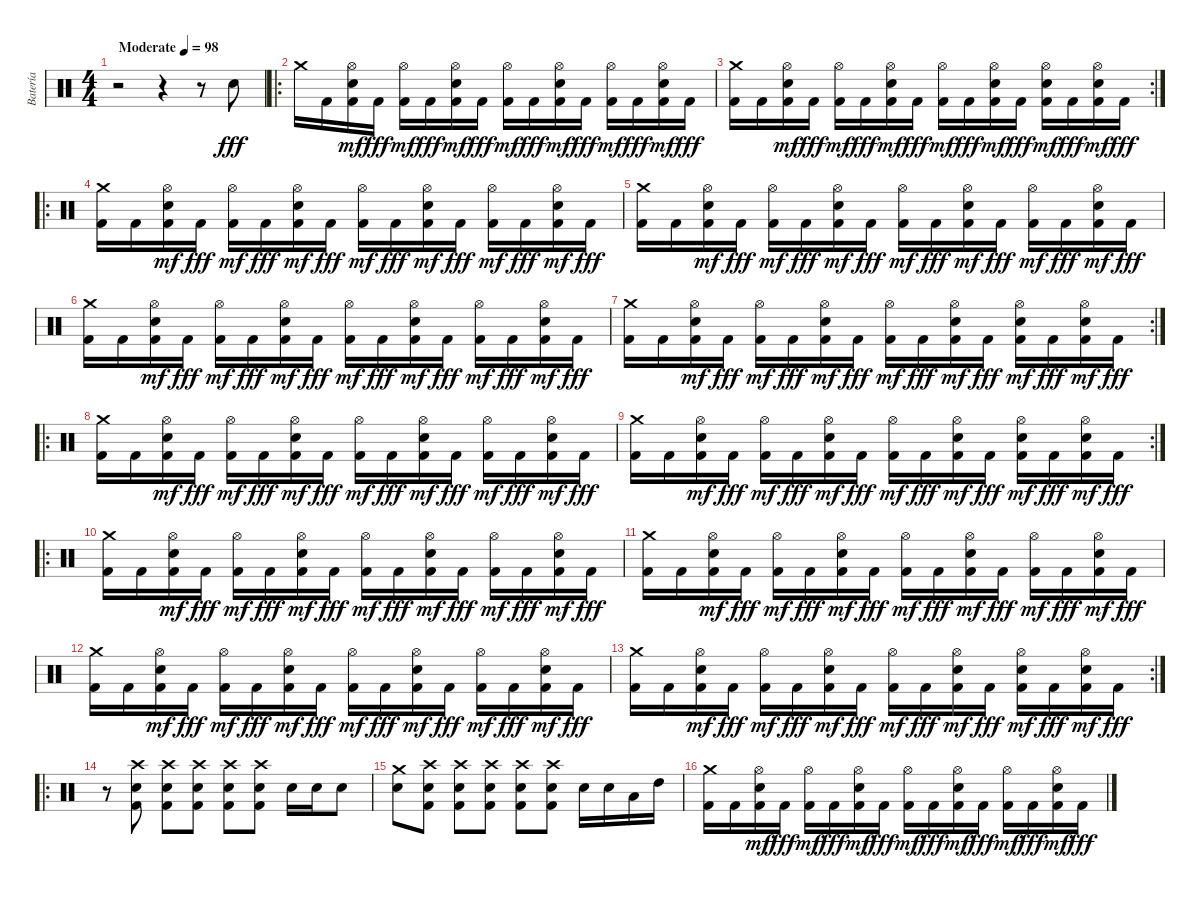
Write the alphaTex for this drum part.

\track ("Batería" "Batería") {instrument percussion}
\staff {score}
\articulation defaults
\ts (4 4)
\tempo (98 "Moderate")
\clef neutral
\ks c
r.2{dy fff} r.4 r.8 "Electric Snare (hit)".8 |
\ro "Crash medium (hit)".16 "Kick (hit) 2".16
("Kick (hit) 2" "Electric Snare (hit)" "Hi-Hat (open)").16{dy mf} "Kick (hit) 2".16{dy fff} ("Kick (hit) 2" "Hi-Hat (open)").16{dy mf} "Kick (hit) 2".16{dy fff} ("Kick (hit) 2" "Electric Snare (hit)" "Hi-Hat (open)").16{dy mf} "Kick (hit) 2".16{dy fff} ("Kick (hit) 2" "Hi-Hat (open)").16{dy mf} "Kick (hit) 2".16{dy fff} ("Kick (hit) 2" "Electric Snare (hit)" "Hi-Hat (open)").16{dy mf} "Kick (hit) 2".16{dy fff} ("Kick (hit) 2" "Hi-Hat (open)").16{dy mf} "Kick (hit) 2".16{dy fff} ("Kick (hit) 2" "Electric Snare (hit)" "Hi-Hat (open)").16{dy mf} "Kick (hit) 2".16{dy fff} |
\rc 2
("Kick (hit) 2" "Crash medium (hit)").16 "Kick (hit) 2".16 ("Kick (hit) 2" "Electric Snare (hit)" "Hi-Hat (open)").16{dy mf} "Kick (hit) 2".16{dy fff} ("Kick (hit) 2" "Hi-Hat (open)").16{dy mf} "Kick (hit) 2".16{dy fff} ("Kick (hit) 2" "Electric Snare (hit)" "Hi-Hat (open)").16{dy mf} "Kick (hit) 2".16{dy fff} ("Kick (hit) 2" "Hi-Hat (open)").16{dy mf} "Kick (hit) 2".16{dy fff} ("Kick (hit) 2" "Electric Snare (hit)" "Hi-Hat (open)").16{dy mf} "Kick (hit) 2".16{dy fff} ("Kick (hit) 2" "Electric Snare (hit)" "Hi-Hat (open)").16{dy mf} "Kick (hit) 2".16{dy fff} ("Kick (hit) 2" "Electric Snare (hit)" "Hi-Hat (open)").16{dy mf} "Kick (hit) 2".16{dy fff} |
\ro
("Kick (hit) 2" "Crash medium (hit)").16 "Kick (hit) 2".16 ("Kick (hit) 2" "Electric Snare (hit)" "Hi-Hat (open)").16{dy mf} "Kick (hit) 2".16{dy fff} ("Kick (hit) 2" "Hi-Hat (open)").16{dy mf} "Kick (hit) 2".16{dy fff} ("Kick (hit) 2" "Electric Snare (hit)" "Hi-Hat (open)").16{dy mf} "Kick (hit) 2".16{dy fff} ("Kick (hit) 2" "Hi-Hat (open)").16{dy mf} "Kick (hit) 2".16{dy fff} ("Kick (hit) 2" "Electric Snare (hit)" "Hi-Hat (open)").16{dy mf} "Kick (hit) 2".16{dy fff} ("Kick (hit) 2" "Hi-Hat (open)").16{dy mf} "Kick (hit) 2".16{dy fff} ("Kick (hit) 2" "Electric Snare (hit)" "Hi-Hat (open)").16{dy mf} "Kick (hit) 2".16{dy fff} |
("Kick (hit) 2" "Crash medium (hit)").16 "Kick (hit) 2".16 ("Kick (hit) 2" "Electric Snare (hit)" "Hi-Hat (open)").16{dy mf} "Kick (hit) 2".16{dy fff} ("Kick (hit) 2" "Hi-Hat (open)").16{dy mf} "Kick (hit) 2".16{dy fff} ("Kick (hit) 2" "Electric Snare (hit)" "Hi-Hat (open)").16{dy mf} "Kick (hit) 2".16{dy fff} ("Kick (hit) 2" "Hi-Hat (open)").16{dy mf} "Kick (hit) 2".16{dy fff} ("Kick (hit) 2" "Electric Snare (hit)" "Hi-Hat (open)").16{dy mf} "Kick (hit) 2".16{dy fff} ("Kick (hit) 2" "Hi-Hat (open)").16{dy mf} "Kick (hit) 2".16{dy fff} ("Kick (hit) 2" "Electric Snare (hit)" "Hi-Hat (open)").16{dy mf} "Kick (hit) 2".16{dy fff} |
("Kick (hit) 2" "Crash medium (hit)").16 "Kick (hit) 2".16 ("Kick (hit) 2" "Electric Snare (hit)" "Hi-Hat (open)").16{dy mf} "Kick (hit) 2".16{dy fff} ("Kick (hit) 2" "Hi-Hat (open)").16{dy mf} "Kick (hit) 2".16{dy fff} ("Kick (hit) 2" "Electric Snare (hit)" "Hi-Hat (open)").16{dy mf} "Kick (hit) 2".16{dy fff} ("Kick (hit) 2" "Hi-Hat (open)").16{dy mf} "Kick (hit) 2".16{dy fff} ("Kick (hit) 2" "Electric Snare (hit)" "Hi-Hat (open)").16{dy mf} "Kick (hit) 2".16{dy fff} ("Kick (hit) 2" "Hi-Hat (open)").16{dy mf} "Kick (hit) 2".16{dy fff} ("Kick (hit) 2" "Electric Snare (hit)" "Hi-Hat (open)").16{dy mf} "Kick (hit) 2".16{dy fff} |
\rc 2
("Kick (hit) 2" "Crash medium (hit)").16 "Kick (hit) 2".16 ("Kick (hit) 2" "Electric Snare (hit)" "Hi-Hat (open)").16{dy mf} "Kick (hit) 2".16{dy fff} ("Kick (hit) 2" "Hi-Hat (open)").16{dy mf} "Kick (hit) 2".16{dy fff} ("Kick (hit) 2" "Electric Snare (hit)" "Hi-Hat (open)").16{dy mf} "Kick (hit) 2".16{dy fff} ("Kick (hit) 2" "Hi-Hat (open)").16{dy mf} "Kick (hit) 2".16{dy fff} ("Kick (hit) 2" "Electric Snare (hit)" "Hi-Hat (open)").16{dy mf} "Kick (hit) 2".16{dy fff} ("Kick (hit) 2" "Electric Snare (hit)" "Hi-Hat (open)").16{dy mf} "Kick (hit) 2".16{dy fff} ("Kick (hit) 2" "Electric Snare (hit)" "Hi-Hat (open)").16{dy mf} "Kick (hit) 2".16{dy fff} |
\ro
("Kick (hit) 2" "Crash medium (hit)").16 "Kick (hit) 2".16 ("Kick (hit) 2" "Electric Snare (hit)" "Hi-Hat (open)").16{dy mf} "Kick (hit) 2".16{dy fff} ("Kick (hit) 2" "Hi-Hat (open)").16{dy mf} "Kick (hit) 2".16{dy fff} ("Kick (hit) 2" "Electric Snare (hit)" "Hi-Hat (open)").16{dy mf} "Kick (hit) 2".16{dy fff} ("Kick (hit) 2" "Hi-Hat (open)").16{dy mf} "Kick (hit) 2".16{dy fff} ("Kick (hit) 2" "Electric Snare (hit)" "Hi-Hat (open)").16{dy mf} "Kick (hit) 2".16{dy fff} ("Kick (hit) 2" "Hi-Hat (open)").16{dy mf} "Kick (hit) 2".16{dy fff} ("Kick (hit) 2" "Electric Snare (hit)" "Hi-Hat (open)").16{dy mf} "Kick (hit) 2".16{dy fff} |
\rc 2
("Kick (hit) 2" "Crash medium (hit)").16 "Kick (hit) 2".16 ("Kick (hit) 2" "Electric Snare (hit)" "Hi-Hat (open)").16{dy mf} "Kick (hit) 2".16{dy fff} ("Kick (hit) 2" "Hi-Hat (open)").16{dy mf} "Kick (hit) 2".16{dy fff} ("Kick (hit) 2" "Electric Snare (hit)" "Hi-Hat (open)").16{dy mf} "Kick (hit) 2".16{dy fff} ("Kick (hit) 2" "Hi-Hat (open)").16{dy mf} "Kick (hit) 2".16{dy fff} ("Kick (hit) 2" "Electric Snare (hit)" "Hi-Hat (open)").16{dy mf} "Kick (hit) 2".16{dy fff} ("Kick (hit) 2" "Electric Snare (hit)" "Hi-Hat (open)").16{dy mf} "Kick (hit) 2".16{dy fff} ("Kick (hit) 2" "Electric Snare (hit)" "Hi-Hat (open)").16{dy mf} "Kick (hit) 2".16{dy fff} |
\ro
("Kick (hit) 2" "Crash medium (hit)").16 "Kick (hit) 2".16 ("Kick (hit) 2" "Electric Snare (hit)" "Hi-Hat (open)").16{dy mf} "Kick (hit) 2".16{dy fff} ("Kick (hit) 2" "Hi-Hat (open)").16{dy mf} "Kick (hit) 2".16{dy fff} ("Kick (hit) 2" "Electric Snare (hit)" "Hi-Hat (open)").16{dy mf} "Kick (hit) 2".16{dy fff} ("Kick (hit) 2" "Hi-Hat (open)").16{dy mf} "Kick (hit) 2".16{dy fff} ("Kick (hit) 2" "Electric Snare (hit)" "Hi-Hat (open)").16{dy mf} "Kick (hit) 2".16{dy fff} ("Kick (hit) 2" "Hi-Hat (open)").16{dy mf} "Kick (hit) 2".16{dy fff} ("Kick (hit) 2" "Electric Snare (hit)" "Hi-Hat (open)").16{dy mf} "Kick (hit) 2".16{dy fff} |
("Kick (hit) 2" "Crash medium (hit)").16 "Kick (hit) 2".16 ("Kick (hit) 2" "Electric Snare (hit)" "Hi-Hat (open)").16{dy mf} "Kick (hit) 2".16{dy fff} ("Kick (hit) 2" "Hi-Hat (open)").16{dy mf} "Kick (hit) 2".16{dy fff} ("Kick (hit) 2" "Electric Snare (hit)" "Hi-Hat (open)").16{dy mf} "Kick (hit) 2".16{dy fff} ("Kick (hit) 2" "Hi-Hat (open)").16{dy mf} "Kick (hit) 2".16{dy fff} ("Kick (hit) 2" "Electric Snare (hit)" "Hi-Hat (open)").16{dy mf} "Kick (hit) 2".16{dy fff} ("Kick (hit) 2" "Hi-Hat (open)").16{dy mf} "Kick (hit) 2".16{dy fff} ("Kick (hit) 2" "Electric Snare (hit)" "Hi-Hat (open)").16{dy mf} "Kick (hit) 2".16{dy fff} |
("Kick (hit) 2" "Crash medium (hit)").16 "Kick (hit) 2".16 ("Kick (hit) 2" "Electric Snare (hit)" "Hi-Hat (open)").16{dy mf} "Kick (hit) 2".16{dy fff} ("Kick (hit) 2" "Hi-Hat (open)").16{dy mf} "Kick (hit) 2".16{dy fff} ("Kick (hit) 2" "Electric Snare (hit)" "Hi-Hat (open)").16{dy mf} "Kick (hit) 2".16{dy fff} ("Kick (hit) 2" "Hi-Hat (open)").16{dy mf} "Kick (hit) 2".16{dy fff} ("Kick (hit) 2" "Electric Snare (hit)" "Hi-Hat (open)").16{dy mf} "Kick (hit) 2".16{dy fff} ("Kick (hit) 2" "Hi-Hat (open)").16{dy mf} "Kick (hit) 2".16{dy fff} ("Kick (hit) 2" "Electric Snare (hit)" "Hi-Hat (open)").16{dy mf} "Kick (hit) 2".16{dy fff} |
\rc 2
("Kick (hit) 2" "Crash medium (hit)").16 "Kick (hit) 2".16 ("Kick (hit) 2" "Electric Snare (hit)" "Hi-Hat (open)").16{dy mf} "Kick (hit) 2".16{dy fff} ("Kick (hit) 2" "Hi-Hat (open)").16{dy mf} "Kick (hit) 2".16{dy fff} ("Kick (hit) 2" "Electric Snare (hit)" "Hi-Hat (open)").16{dy mf} "Kick (hit) 2".16{dy fff} ("Kick (hit) 2" "Hi-Hat (open)").16{dy mf} "Kick (hit) 2".16{dy fff} ("Kick (hit) 2" "Electric Snare (hit)" "Hi-Hat (open)").16{dy mf} "Kick (hit) 2".16{dy fff} ("Kick (hit) 2" "Electric Snare (hit)" "Hi-Hat (open)").16{dy mf} "Kick (hit) 2".16{dy fff} ("Kick (hit) 2" "Electric Snare (hit)" "Hi-Hat (open)").16{dy mf} "Kick (hit) 2".16{dy fff} |
\ro
r.8 ("Kick (hit) 2" "Electric Snare (hit)" "Crash high (hit)").8 ("Kick (hit) 2" "Electric Snare (hit)" "Crash high (hit)").8 ("Kick (hit) 2" "Electric Snare (hit)" "Crash high (hit)").8 ("Kick (hit) 2" "Electric Snare (hit)" "Crash high (hit)").8 ("Kick (hit) 2" "Electric Snare (hit)" "Crash high (hit)").8 "Electric Snare (hit)".16 "Electric Snare (hit)".16 "Electric Snare (hit)".8 |
("Electric Snare (hit)" "Crash medium (hit)").8 ("Kick (hit) 2" "Electric Snare (hit)" "Crash high (hit)").8 ("Kick (hit) 2" "Electric Snare (hit)" "Crash high (hit)").8 ("Kick (hit) 2" "Electric Snare (hit)" "Crash high (hit)").8 ("Kick (hit) 2" "Electric Snare (hit)" "Crash high (hit)").8 ("Kick (hit) 2" "Electric Snare (hit)" "Crash high (hit)").8 "Electric Snare (hit)".16 "Electric Snare (hit)".16 "Low Tom (hit)".16 "High Tom (hit)".16 |
("Kick (hit) 2" "Crash medium (hit)").16 "Kick (hit) 2".16 ("Kick (hit) 2" "Electric Snare (hit)" "Hi-Hat (open)").16{dy mf} "Kick (hit) 2".16{dy fff} ("Kick (hit) 2" "Hi-Hat (open)").16{dy mf} "Kick (hit) 2".16{dy fff} ("Kick (hit) 2" "Electric Snare (hit)" "Hi-Hat (open)").16{dy mf} "Kick (hit) 2".16{dy fff} ("Kick (hit) 2" "Hi-Hat (open)").16{dy mf} "Kick (hit) 2".16{dy fff} ("Kick (hit) 2" "Electric Snare (hit)" "Hi-Hat (open)").16{dy mf} "Kick (hit) 2".16{dy fff} ("Kick (hit) 2" "Hi-Hat (open)").16{dy mf} "Kick (hit) 2".16{dy fff} ("Kick (hit) 2" "Electric Snare (hit)" "Hi-Hat (open)").16{dy mf} "Kick (hit) 2".16{dy fff}
